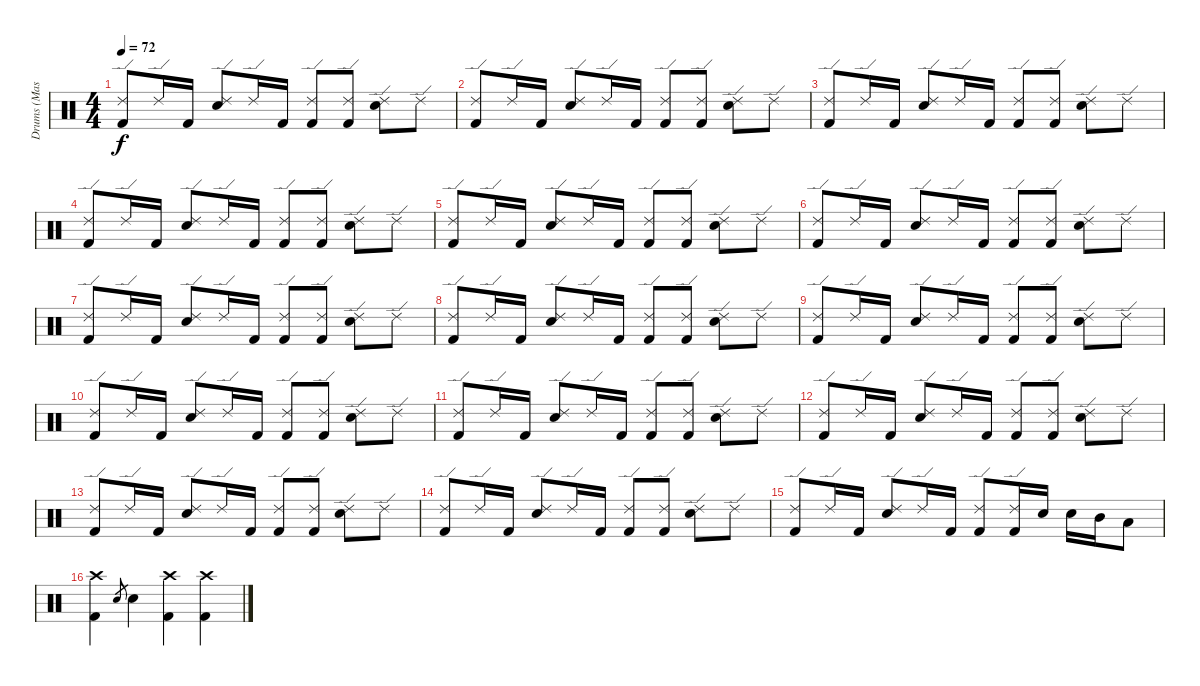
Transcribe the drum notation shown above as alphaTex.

\track ("Drums (Mason)" "Drums (Mas") {instrument percussion}
\staff {score}
\articulation defaults
\ts (4 4)
\tempo 72
\clef neutral
\ks c
("Ride (edge) 2" "Kick (hit) 2").8{dy f} "Ride (edge) 2".16 "Kick (hit) 2".16 ("Ride (edge) 2" "Electric Snare (hit)").8 "Ride (edge) 2".16 "Kick (hit) 2".16 ("Ride (edge) 2" "Kick (hit) 2").8 ("Ride (edge) 2" "Kick (hit) 2").8 ("Ride (edge) 2" "Electric Snare (hit)").8 "Ride (edge) 2".8 |
("Ride (edge) 2" "Kick (hit) 2").8 "Ride (edge) 2".16 "Kick (hit) 2".16 ("Ride (edge) 2" "Electric Snare (hit)").8 "Ride (edge) 2".16 "Kick (hit) 2".16 ("Ride (edge) 2" "Kick (hit) 2").8 ("Ride (edge) 2" "Kick (hit) 2").8 ("Ride (edge) 2" "Electric Snare (hit)").8 "Ride (edge) 2".8 |
("Ride (edge) 2" "Kick (hit) 2").8 "Ride (edge) 2".16 "Kick (hit) 2".16 ("Ride (edge) 2" "Electric Snare (hit)").8 "Ride (edge) 2".16 "Kick (hit) 2".16 ("Ride (edge) 2" "Kick (hit) 2").8 ("Ride (edge) 2" "Kick (hit) 2").8 ("Ride (edge) 2" "Electric Snare (hit)").8 "Ride (edge) 2".8 |
("Ride (edge) 2" "Kick (hit) 2").8 "Ride (edge) 2".16 "Kick (hit) 2".16 ("Ride (edge) 2" "Electric Snare (hit)").8 "Ride (edge) 2".16 "Kick (hit) 2".16 ("Ride (edge) 2" "Kick (hit) 2").8 ("Ride (edge) 2" "Kick (hit) 2").8 ("Ride (edge) 2" "Electric Snare (hit)").8 "Ride (edge) 2".8 |
("Ride (edge) 2" "Kick (hit) 2").8 "Ride (edge) 2".16 "Kick (hit) 2".16 ("Ride (edge) 2" "Electric Snare (hit)").8 "Ride (edge) 2".16 "Kick (hit) 2".16 ("Ride (edge) 2" "Kick (hit) 2").8 ("Ride (edge) 2" "Kick (hit) 2").8 ("Ride (edge) 2" "Electric Snare (hit)").8 "Ride (edge) 2".8 |
("Ride (edge) 2" "Kick (hit) 2").8 "Ride (edge) 2".16 "Kick (hit) 2".16 ("Ride (edge) 2" "Electric Snare (hit)").8 "Ride (edge) 2".16 "Kick (hit) 2".16 ("Ride (edge) 2" "Kick (hit) 2").8 ("Ride (edge) 2" "Kick (hit) 2").8 ("Ride (edge) 2" "Electric Snare (hit)").8 "Ride (edge) 2".8 |
("Ride (edge) 2" "Kick (hit) 2").8 "Ride (edge) 2".16 "Kick (hit) 2".16 ("Ride (edge) 2" "Electric Snare (hit)").8 "Ride (edge) 2".16 "Kick (hit) 2".16 ("Ride (edge) 2" "Kick (hit) 2").8 ("Ride (edge) 2" "Kick (hit) 2").8 ("Ride (edge) 2" "Electric Snare (hit)").8 "Ride (edge) 2".8 |
("Ride (edge) 2" "Kick (hit) 2").8 "Ride (edge) 2".16 "Kick (hit) 2".16 ("Ride (edge) 2" "Electric Snare (hit)").8 "Ride (edge) 2".16 "Kick (hit) 2".16 ("Ride (edge) 2" "Kick (hit) 2").8 ("Ride (edge) 2" "Kick (hit) 2").8 ("Ride (edge) 2" "Electric Snare (hit)").8 "Ride (edge) 2".8 |
("Ride (edge) 2" "Kick (hit) 2").8 "Ride (edge) 2".16 "Kick (hit) 2".16 ("Ride (edge) 2" "Electric Snare (hit)").8 "Ride (edge) 2".16 "Kick (hit) 2".16 ("Ride (edge) 2" "Kick (hit) 2").8 ("Ride (edge) 2" "Kick (hit) 2").8 ("Ride (edge) 2" "Electric Snare (hit)").8 "Ride (edge) 2".8 |
("Ride (edge) 2" "Kick (hit) 2").8 "Ride (edge) 2".16 "Kick (hit) 2".16 ("Ride (edge) 2" "Electric Snare (hit)").8 "Ride (edge) 2".16 "Kick (hit) 2".16 ("Ride (edge) 2" "Kick (hit) 2").8 ("Ride (edge) 2" "Kick (hit) 2").8 ("Ride (edge) 2" "Electric Snare (hit)").8 "Ride (edge) 2".8 |
("Ride (edge) 2" "Kick (hit) 2").8 "Ride (edge) 2".16 "Kick (hit) 2".16 ("Ride (edge) 2" "Electric Snare (hit)").8 "Ride (edge) 2".16 "Kick (hit) 2".16 ("Ride (edge) 2" "Kick (hit) 2").8 ("Ride (edge) 2" "Kick (hit) 2").8 ("Ride (edge) 2" "Electric Snare (hit)").8 "Ride (edge) 2".8 |
("Ride (edge) 2" "Kick (hit) 2").8 "Ride (edge) 2".16 "Kick (hit) 2".16 ("Ride (edge) 2" "Electric Snare (hit)").8 "Ride (edge) 2".16 "Kick (hit) 2".16 ("Ride (edge) 2" "Kick (hit) 2").8 ("Ride (edge) 2" "Kick (hit) 2").8 ("Ride (edge) 2" "Electric Snare (hit)").8 "Ride (edge) 2".8 |
("Ride (edge) 2" "Kick (hit) 2").8 "Ride (edge) 2".16 "Kick (hit) 2".16 ("Ride (edge) 2" "Electric Snare (hit)").8 "Ride (edge) 2".16 "Kick (hit) 2".16 ("Ride (edge) 2" "Kick (hit) 2").8 ("Ride (edge) 2" "Kick (hit) 2").8 ("Ride (edge) 2" "Electric Snare (hit)").8 "Ride (edge) 2".8 |
("Ride (edge) 2" "Kick (hit) 2").8 "Ride (edge) 2".16 "Kick (hit) 2".16 ("Ride (edge) 2" "Electric Snare (hit)").8 "Ride (edge) 2".16 "Kick (hit) 2".16 ("Ride (edge) 2" "Kick (hit) 2").8 ("Ride (edge) 2" "Kick (hit) 2").8 ("Ride (edge) 2" "Electric Snare (hit)").8 "Ride (edge) 2".8 |
("Ride (edge) 2" "Kick (hit) 2").8 "Ride (edge) 2".16 "Kick (hit) 2".16 ("Ride (edge) 2" "Electric Snare (hit)").8 "Ride (edge) 2".16 "Kick (hit) 2".16 ("Ride (edge) 2" "Kick (hit) 2").8 ("Ride (edge) 2" "Kick (hit) 2").16 "Electric Snare (hit)".16 "Electric Snare (hit)".16 "Mid Tom (hit)".16 "Low Tom (hit)".8 |
("Crash high (hit)" "Kick (hit) 2").4 "Electric Snare (hit)".8{gr} "Electric Snare (hit)".4 ("Crash high (hit)" "Kick (hit) 2").4 ("Crash high (hit)" "Kick (hit) 2").4
